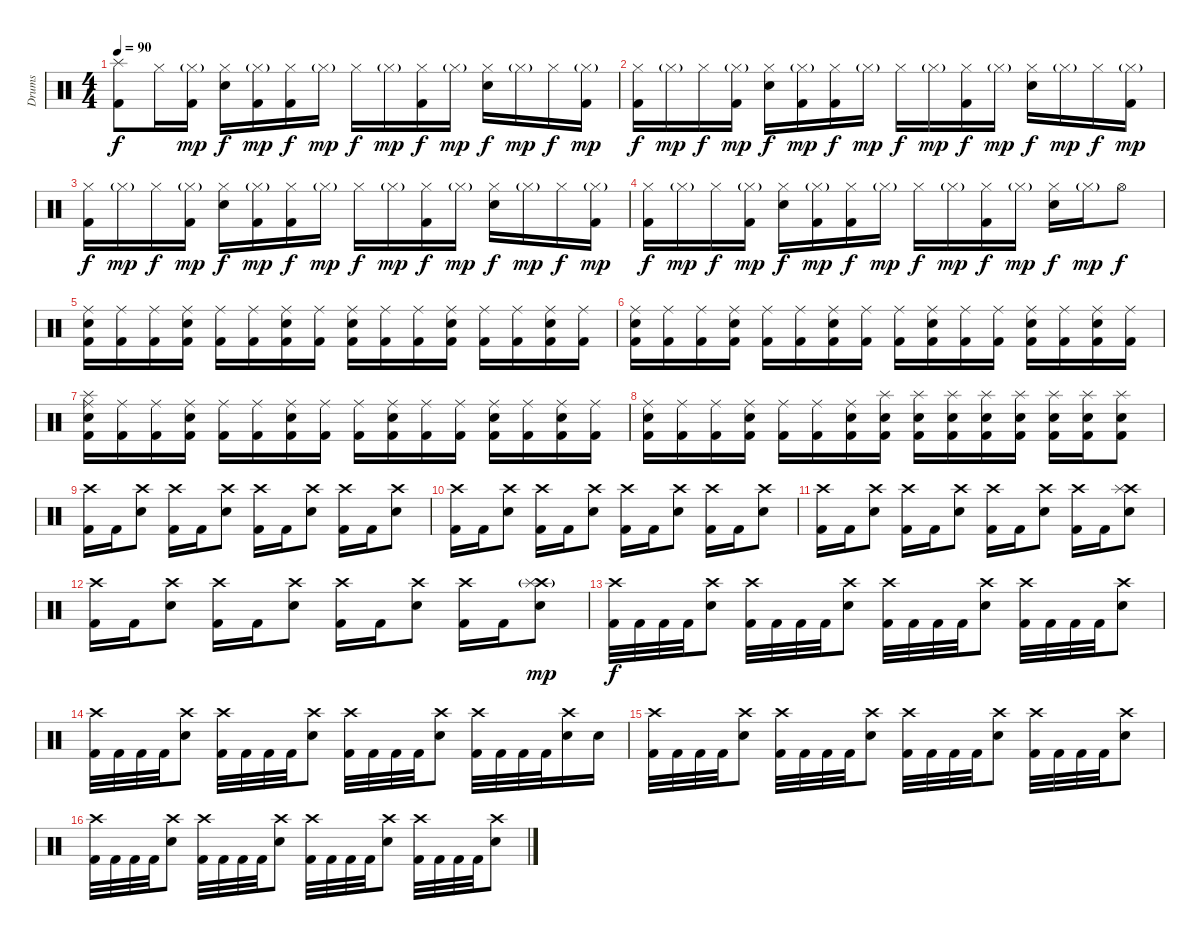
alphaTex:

\track ("Drums" "Drums") {instrument percussion}
\staff {score}
\articulation defaults
\ts (4 4)
\tempo 90
\clef neutral
\ks c
("Splash (hit)" "Kick (hit) 2").8{dy f} "Hi-Hat (closed)".16 ("Hi-Hat (closed)"{g} "Kick (hit) 2").16{dy mp} ("Hi-Hat (closed)" "Electric Snare (hit)").16{dy f} ("Hi-Hat (closed)"{g} "Kick (hit) 2").16{dy mp} ("Hi-Hat (closed)" "Kick (hit) 2").16{dy f} "Hi-Hat (closed)"{g}.16{dy mp} "Hi-Hat (closed)".16{dy f} "Hi-Hat (closed)"{g}.16{dy mp} ("Hi-Hat (closed)" "Kick (hit) 2").16{dy f} "Hi-Hat (closed)"{g}.16{dy mp} ("Hi-Hat (closed)" "Electric Snare (hit)").16{dy f} "Hi-Hat (closed)"{g}.16{dy mp} "Hi-Hat (closed)".16{dy f} ("Hi-Hat (closed)"{g} "Kick (hit) 2").16{dy mp} |
("Hi-Hat (closed)" "Kick (hit) 2").16{dy f} "Hi-Hat (closed)"{g}.16{dy mp} "Hi-Hat (closed)".16{dy f} ("Hi-Hat (closed)"{g} "Kick (hit) 2").16{dy mp} ("Hi-Hat (closed)" "Electric Snare (hit)").16{dy f} ("Hi-Hat (closed)"{g} "Kick (hit) 2").16{dy mp} ("Hi-Hat (closed)" "Kick (hit) 2").16{dy f} "Hi-Hat (closed)"{g}.16{dy mp} "Hi-Hat (closed)".16{dy f} "Hi-Hat (closed)"{g}.16{dy mp} ("Hi-Hat (closed)" "Kick (hit) 2").16{dy f} "Hi-Hat (closed)"{g}.16{dy mp} ("Hi-Hat (closed)" "Electric Snare (hit)").16{dy f} "Hi-Hat (closed)"{g}.16{dy mp} "Hi-Hat (closed)".16{dy f} ("Hi-Hat (closed)"{g} "Kick (hit) 2").16{dy mp} |
("Hi-Hat (closed)" "Kick (hit) 2").16{dy f} "Hi-Hat (closed)"{g}.16{dy mp} "Hi-Hat (closed)".16{dy f} ("Hi-Hat (closed)"{g} "Kick (hit) 2").16{dy mp} ("Hi-Hat (closed)" "Electric Snare (hit)").16{dy f} ("Hi-Hat (closed)"{g} "Kick (hit) 2").16{dy mp} ("Hi-Hat (closed)" "Kick (hit) 2").16{dy f} "Hi-Hat (closed)"{g}.16{dy mp} "Hi-Hat (closed)".16{dy f} "Hi-Hat (closed)"{g}.16{dy mp} ("Hi-Hat (closed)" "Kick (hit) 2").16{dy f} "Hi-Hat (closed)"{g}.16{dy mp} ("Hi-Hat (closed)" "Electric Snare (hit)").16{dy f} "Hi-Hat (closed)"{g}.16{dy mp} "Hi-Hat (closed)".16{dy f} ("Hi-Hat (closed)"{g} "Kick (hit) 2").16{dy mp} |
("Hi-Hat (closed)" "Kick (hit) 2").16{dy f} "Hi-Hat (closed)"{g}.16{dy mp} "Hi-Hat (closed)".16{dy f} ("Hi-Hat (closed)"{g} "Kick (hit) 2").16{dy mp} ("Hi-Hat (closed)" "Electric Snare (hit)").16{dy f} ("Hi-Hat (closed)"{g} "Kick (hit) 2").16{dy mp} ("Hi-Hat (closed)" "Kick (hit) 2").16{dy f} "Hi-Hat (closed)"{g}.16{dy mp} "Hi-Hat (closed)".16{dy f} "Hi-Hat (closed)"{g}.16{dy mp} ("Hi-Hat (closed)" "Kick (hit) 2").16{dy f} "Hi-Hat (closed)"{g}.16{dy mp} ("Hi-Hat (closed)" "Electric Snare (hit)").16{dy f} "Hi-Hat (closed)"{g}.16{dy mp} "Hi-Hat (open)".8{dy f} |
("Ride (middle)" "Snare (hit) 2" "Kick (hit) 2").16 ("Ride (middle)" "Kick (hit) 2").16 ("Ride (middle)" "Kick (hit) 2").16 ("Ride (middle)" "Snare (hit) 2" "Kick (hit) 2").16 ("Ride (middle)" "Kick (hit) 2").16 ("Ride (middle)" "Kick (hit) 2").16 ("Ride (middle)" "Snare (hit) 2" "Kick (hit) 2").16 ("Ride (middle)" "Kick (hit) 2").16 ("Ride (middle)" "Snare (hit) 2" "Kick (hit) 2").16 ("Ride (middle)" "Kick (hit) 2").16 ("Ride (middle)" "Kick (hit) 2").16 ("Ride (middle)" "Snare (hit) 2" "Kick (hit) 2").16 ("Ride (middle)" "Kick (hit) 2").16 ("Ride (middle)" "Kick (hit) 2").16 ("Ride (middle)" "Snare (hit) 2" "Kick (hit) 2").16 ("Ride (middle)" "Kick (hit) 2").16 |
("Ride (middle)" "Snare (hit) 2" "Kick (hit) 2").16 ("Ride (middle)" "Kick (hit) 2").16 ("Ride (middle)" "Kick (hit) 2").16 ("Ride (middle)" "Snare (hit) 2" "Kick (hit) 2").16 ("Ride (middle)" "Kick (hit) 2").16 ("Ride (middle)" "Kick (hit) 2").16 ("Ride (middle)" "Snare (hit) 2" "Kick (hit) 2").16 ("Ride (middle)" "Kick (hit) 2").16 ("Ride (middle)" "Kick (hit) 2").16 ("Ride (middle)" "Snare (hit) 2" "Kick (hit) 2").16 ("Ride (middle)" "Kick (hit) 2").16 ("Ride (middle)" "Kick (hit) 2").16 ("Ride (middle)" "Snare (hit) 2" "Kick (hit) 2").16 ("Ride (middle)" "Kick (hit) 2").16 ("Ride (middle)" "Snare (hit) 2" "Kick (hit) 2").16 ("Ride (middle)" "Kick (hit) 2").16 |
("Ride (middle)" "Splash (hit)" "Snare (hit) 2" "Kick (hit) 2").16 ("Ride (middle)" "Kick (hit) 2").16 ("Ride (middle)" "Kick (hit) 2").16 ("Ride (middle)" "Snare (hit) 2" "Kick (hit) 2").16 ("Ride (middle)" "Kick (hit) 2").16 ("Ride (middle)" "Kick (hit) 2").16 ("Ride (middle)" "Snare (hit) 2" "Kick (hit) 2").16 ("Ride (middle)" "Kick (hit) 2").16 ("Ride (middle)" "Kick (hit) 2").16 ("Ride (middle)" "Snare (hit) 2" "Kick (hit) 2").16 ("Ride (middle)" "Kick (hit) 2").16 ("Ride (middle)" "Kick (hit) 2").16 ("Ride (middle)" "Snare (hit) 2" "Kick (hit) 2").16 ("Ride (middle)" "Kick (hit) 2").16 ("Ride (middle)" "Snare (hit) 2" "Kick (hit) 2").16 ("Ride (middle)" "Kick (hit) 2").16 |
("Ride (middle)" "Snare (hit) 2" "Kick (hit) 2").16 ("Ride (middle)" "Kick (hit) 2").16 ("Ride (middle)" "Kick (hit) 2").16 ("Ride (middle)" "Snare (hit) 2" "Kick (hit) 2").16 ("Ride (middle)" "Kick (hit) 2").16 ("Ride (middle)" "Kick (hit) 2").16 ("Ride (middle)" "Snare (hit) 2" "Kick (hit) 2").16 ("Splash (hit)" "Snare (hit) 2" "Kick (hit) 2").16 ("Splash (hit)" "Snare (hit) 2" "Kick (hit) 2").16 ("Splash (hit)" "Snare (hit) 2" "Kick (hit) 2").16 ("Splash (hit)" "Snare (hit) 2" "Kick (hit) 2").16 ("Splash (hit)" "Snare (hit) 2" "Kick (hit) 2").16 ("Splash (hit)" "Snare (hit) 2" "Kick (hit) 2").16 ("Splash (hit)" "Snare (hit) 2" "Kick (hit) 2").16 ("Splash (hit)" "Snare (hit) 2" "Kick (hit) 2").8 |
("Crash high (hit)" "Kick (hit) 2").16 "Kick (hit) 2".16 ("Crash high (hit)" "Snare (hit) 2").8 ("Crash high (hit)" "Kick (hit) 2").16 "Kick (hit) 2".16 ("Crash high (hit)" "Snare (hit) 2").8 ("Crash high (hit)" "Kick (hit) 2").16 "Kick (hit) 2".16 ("Crash high (hit)" "Snare (hit) 2").8 ("Crash high (hit)" "Kick (hit) 2").16 "Kick (hit) 2".16 ("Crash high (hit)" "Snare (hit) 2").8 |
("Crash high (hit)" "Kick (hit) 2").16 "Kick (hit) 2".16 ("Crash high (hit)" "Snare (hit) 2").8 ("Crash high (hit)" "Kick (hit) 2").16 "Kick (hit) 2".16 ("Crash high (hit)" "Snare (hit) 2").8 ("Crash high (hit)" "Kick (hit) 2").16 "Kick (hit) 2".16 ("Crash high (hit)" "Snare (hit) 2").8 ("Crash high (hit)" "Kick (hit) 2").16 "Kick (hit) 2".16 ("Crash high (hit)" "Snare (hit) 2").8 |
("Crash high (hit)" "Kick (hit) 2").16 "Kick (hit) 2".16 ("Crash high (hit)" "Snare (hit) 2").8 ("Crash high (hit)" "Kick (hit) 2").16 "Kick (hit) 2".16 ("Crash high (hit)" "Snare (hit) 2").8 ("Crash high (hit)" "Kick (hit) 2").16 "Kick (hit) 2".16 ("Crash high (hit)" "Snare (hit) 2").8 ("Crash high (hit)" "Kick (hit) 2").16 "Kick (hit) 2".16 ("Crash high (hit)" "Splash (hit)" "Snare (hit) 2").8 |
("Crash high (hit)" "Kick (hit) 2").16 "Kick (hit) 2".16 ("Crash high (hit)" "Snare (hit) 2").8 ("Crash high (hit)" "Kick (hit) 2").16 "Kick (hit) 2".16 ("Crash high (hit)" "Snare (hit) 2").8 ("Crash high (hit)" "Kick (hit) 2").16 "Kick (hit) 2".16 ("Crash high (hit)" "Snare (hit) 2").8 ("Crash high (hit)" "Kick (hit) 2").16 "Kick (hit) 2".16 ("Crash high (hit)" "Splash (hit)"{g} "Snare (hit) 2").8{dy mp} |
("Crash high (hit)" "Kick (hit) 2").32{dy f} "Kick (hit) 2".32 "Kick (hit) 2".32 "Kick (hit) 2".32 ("Crash high (hit)" "Snare (hit) 2").8 ("Crash high (hit)" "Kick (hit) 2").32 "Kick (hit) 2".32 "Kick (hit) 2".32 "Kick (hit) 2".32 ("Crash high (hit)" "Snare (hit) 2").8 ("Crash high (hit)" "Kick (hit) 2").32 "Kick (hit) 2".32 "Kick (hit) 2".32 "Kick (hit) 2".32 ("Crash high (hit)" "Snare (hit) 2").8 ("Crash high (hit)" "Kick (hit) 2").32 "Kick (hit) 2".32 "Kick (hit) 2".32 "Kick (hit) 2".32 ("Crash high (hit)" "Snare (hit) 2").8 |
("Crash high (hit)" "Kick (hit) 2").32 "Kick (hit) 2".32 "Kick (hit) 2".32 "Kick (hit) 2".32 ("Crash high (hit)" "Snare (hit) 2").8 ("Crash high (hit)" "Kick (hit) 2").32 "Kick (hit) 2".32 "Kick (hit) 2".32 "Kick (hit) 2".32 ("Crash high (hit)" "Snare (hit) 2").8 ("Crash high (hit)" "Kick (hit) 2").32 "Kick (hit) 2".32 "Kick (hit) 2".32 "Kick (hit) 2".32 ("Crash high (hit)" "Snare (hit) 2").8 ("Crash high (hit)" "Kick (hit) 2").32 "Kick (hit) 2".32 "Kick (hit) 2".32 "Kick (hit) 2".32 ("Crash high (hit)" "Snare (hit) 2").16 "Snare (hit) 2".16 |
("Crash high (hit)" "Kick (hit) 2").32 "Kick (hit) 2".32 "Kick (hit) 2".32 "Kick (hit) 2".32 ("Crash high (hit)" "Snare (hit) 2").8 ("Crash high (hit)" "Kick (hit) 2").32 "Kick (hit) 2".32 "Kick (hit) 2".32 "Kick (hit) 2".32 ("Crash high (hit)" "Snare (hit) 2").8 ("Crash high (hit)" "Kick (hit) 2").32 "Kick (hit) 2".32 "Kick (hit) 2".32 "Kick (hit) 2".32 ("Crash high (hit)" "Snare (hit) 2").8 ("Crash high (hit)" "Kick (hit) 2").32 "Kick (hit) 2".32 "Kick (hit) 2".32 "Kick (hit) 2".32 ("Crash high (hit)" "Snare (hit) 2").8 |
("Crash high (hit)" "Kick (hit) 2").32 "Kick (hit) 2".32 "Kick (hit) 2".32 "Kick (hit) 2".32 ("Crash high (hit)" "Snare (hit) 2").8 ("Crash high (hit)" "Kick (hit) 2").32 "Kick (hit) 2".32 "Kick (hit) 2".32 "Kick (hit) 2".32 ("Crash high (hit)" "Snare (hit) 2").8 ("Crash high (hit)" "Kick (hit) 2").32 "Kick (hit) 2".32 "Kick (hit) 2".32 "Kick (hit) 2".32 ("Crash high (hit)" "Snare (hit) 2").8 ("Crash high (hit)" "Kick (hit) 2").32 "Kick (hit) 2".32 "Kick (hit) 2".32 "Kick (hit) 2".32 ("Crash high (hit)" "Snare (hit) 2").8
